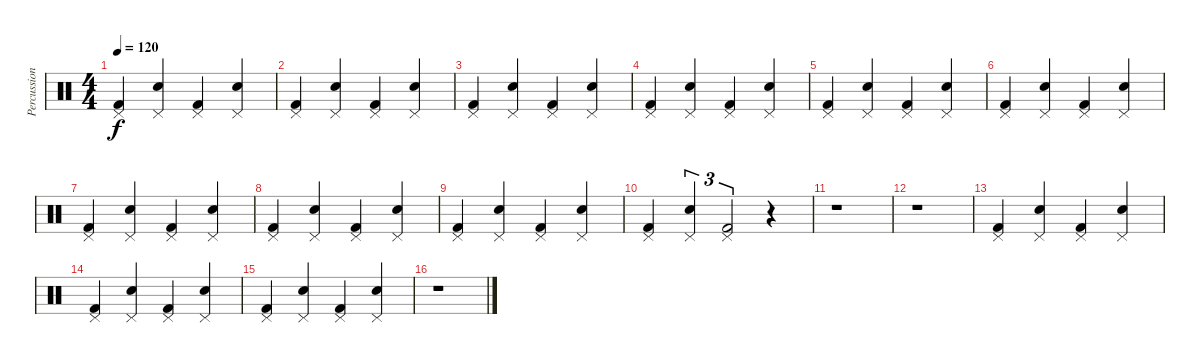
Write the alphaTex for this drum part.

\track ("Percussion" "Percussion") {instrument percussion}
\staff {score}
\articulation defaults
\ts (4 4)
\tempo 120
\clef neutral
\ks c
("Pedal Hi-Hat (hit)" "Kick (hit) 2").4{dy f} ("Pedal Hi-Hat (hit)" "Snare (hit) 2").4 ("Pedal Hi-Hat (hit)" "Kick (hit) 2").4 ("Pedal Hi-Hat (hit)" "Snare (hit) 2").4 |
("Pedal Hi-Hat (hit)" "Kick (hit) 2").4 ("Pedal Hi-Hat (hit)" "Snare (hit) 2").4 ("Pedal Hi-Hat (hit)" "Kick (hit) 2").4 ("Pedal Hi-Hat (hit)" "Snare (hit) 2").4 |
("Pedal Hi-Hat (hit)" "Kick (hit) 2").4 ("Pedal Hi-Hat (hit)" "Snare (hit) 2").4 ("Pedal Hi-Hat (hit)" "Kick (hit) 2").4 ("Pedal Hi-Hat (hit)" "Snare (hit) 2").4 |
("Pedal Hi-Hat (hit)" "Kick (hit) 2").4 ("Pedal Hi-Hat (hit)" "Snare (hit) 2").4 ("Pedal Hi-Hat (hit)" "Kick (hit) 2").4 ("Pedal Hi-Hat (hit)" "Snare (hit) 2").4 |
("Pedal Hi-Hat (hit)" "Kick (hit) 2").4 ("Pedal Hi-Hat (hit)" "Snare (hit) 2").4 ("Pedal Hi-Hat (hit)" "Kick (hit) 2").4 ("Pedal Hi-Hat (hit)" "Snare (hit) 2").4 |
("Pedal Hi-Hat (hit)" "Kick (hit) 2").4 ("Pedal Hi-Hat (hit)" "Snare (hit) 2").4 ("Pedal Hi-Hat (hit)" "Kick (hit) 2").4 ("Pedal Hi-Hat (hit)" "Snare (hit) 2").4 |
("Pedal Hi-Hat (hit)" "Kick (hit) 2").4 ("Pedal Hi-Hat (hit)" "Snare (hit) 2").4 ("Pedal Hi-Hat (hit)" "Kick (hit) 2").4 ("Pedal Hi-Hat (hit)" "Snare (hit) 2").4 |
("Pedal Hi-Hat (hit)" "Kick (hit) 2").4 ("Pedal Hi-Hat (hit)" "Snare (hit) 2").4 ("Pedal Hi-Hat (hit)" "Kick (hit) 2").4 ("Pedal Hi-Hat (hit)" "Snare (hit) 2").4 |
("Pedal Hi-Hat (hit)" "Kick (hit) 2").4 ("Pedal Hi-Hat (hit)" "Snare (hit) 2").4 ("Pedal Hi-Hat (hit)" "Kick (hit) 2").4 ("Pedal Hi-Hat (hit)" "Snare (hit) 2").4 |
("Pedal Hi-Hat (hit)" "Kick (hit) 2").4 ("Pedal Hi-Hat (hit)" "Snare (hit) 2").4{tu (3 2)} ("Pedal Hi-Hat (hit)" "Kick (hit) 2").2{tu (3 2)} r.4 |
r.1 |
r.1 |
("Pedal Hi-Hat (hit)" "Kick (hit) 2").4 ("Pedal Hi-Hat (hit)" "Snare (hit) 2").4 ("Pedal Hi-Hat (hit)" "Kick (hit) 2").4 ("Pedal Hi-Hat (hit)" "Snare (hit) 2").4 |
("Pedal Hi-Hat (hit)" "Kick (hit) 2").4 ("Pedal Hi-Hat (hit)" "Snare (hit) 2").4 ("Pedal Hi-Hat (hit)" "Kick (hit) 2").4 ("Pedal Hi-Hat (hit)" "Snare (hit) 2").4 |
("Pedal Hi-Hat (hit)" "Kick (hit) 2").4 ("Pedal Hi-Hat (hit)" "Snare (hit) 2").4 ("Pedal Hi-Hat (hit)" "Kick (hit) 2").4 ("Pedal Hi-Hat (hit)" "Snare (hit) 2").4 |
r.1
